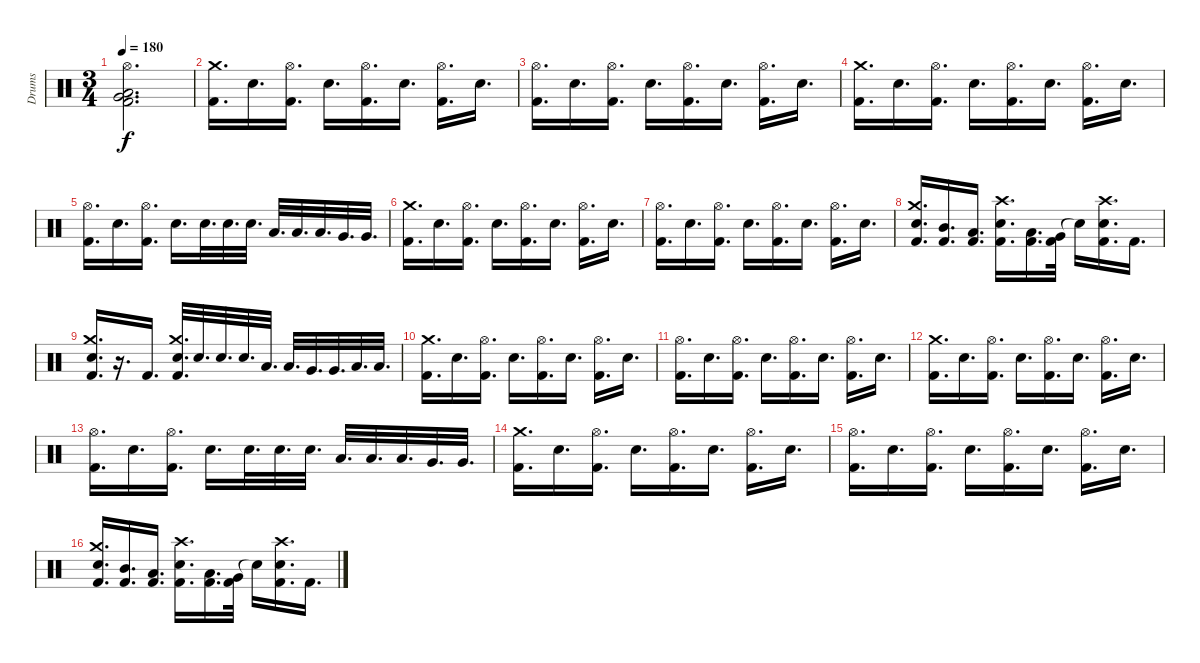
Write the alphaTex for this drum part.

\track ("Drums" "Drums") {instrument percussion}
\staff {score}
\articulation defaults
\ts (3 4)
\tempo 180
\clef neutral
\ks c
("Hi-Hat (open)" "Low Tom (hit)" "Very Low Tom (hit)" "Kick (hit) 2").2{d dy f} |
("Crash medium (hit)" "Kick (hit) 2").16{d} "Electric Snare (hit)".16{d} ("Hi-Hat (open)" "Kick (hit) 2").16{d} "Electric Snare (hit)".16{d} ("Hi-Hat (open)" "Kick (hit) 2").16{d} "Electric Snare (hit)".16{d} ("Hi-Hat (open)" "Kick (hit) 2").16{d} "Electric Snare (hit)".16{d} |
("Hi-Hat (open)" "Kick (hit) 2").16{d} "Electric Snare (hit)".16{d} ("Hi-Hat (open)" "Kick (hit) 2").16{d} "Electric Snare (hit)".16{d} ("Hi-Hat (open)" "Kick (hit) 2").16{d} "Electric Snare (hit)".16{d} ("Hi-Hat (open)" "Kick (hit) 2").16{d} "Electric Snare (hit)".16{d} |
("Crash medium (hit)" "Kick (hit) 2").16{d} "Electric Snare (hit)".16{d} ("Hi-Hat (open)" "Kick (hit) 2").16{d} "Electric Snare (hit)".16{d} ("Hi-Hat (open)" "Kick (hit) 2").16{d} "Electric Snare (hit)".16{d} ("Hi-Hat (open)" "Kick (hit) 2").16{d} "Electric Snare (hit)".16{d} |
("Hi-Hat (open)" "Kick (hit) 2").16{d} "Electric Snare (hit)".16{d} ("Hi-Hat (open)" "Kick (hit) 2").16{d} "Electric Snare (hit)".16{d} "Electric Snare (hit)".32{d} "Electric Snare (hit)".32{d} "Electric Snare (hit)".32{d} "Low Tom (hit)".32{d} "Low Tom (hit)".32{d} "Low Tom (hit)".32{d} "Very Low Tom (hit)".32{d} "Very Low Tom (hit)".32{d} |
("Crash medium (hit)" "Kick (hit) 2").16{d} "Electric Snare (hit)".16{d} ("Hi-Hat (open)" "Kick (hit) 2").16{d} "Electric Snare (hit)".16{d} ("Hi-Hat (open)" "Kick (hit) 2").16{d} "Electric Snare (hit)".16{d} ("Hi-Hat (open)" "Kick (hit) 2").16{d} "Electric Snare (hit)".16{d} |
("Hi-Hat (open)" "Kick (hit) 2").16{d} "Electric Snare (hit)".16{d} ("Hi-Hat (open)" "Kick (hit) 2").16{d} "Electric Snare (hit)".16{d} ("Hi-Hat (open)" "Kick (hit) 2").16{d} "Electric Snare (hit)".16{d} ("Hi-Hat (open)" "Kick (hit) 2").16{d} "Electric Snare (hit)".16{d} |
("Crash medium (hit)" "Electric Snare (hit)" "Kick (hit) 2").16{d} ("Mid Tom (hit)" "Kick (hit) 2").16{d} ("Low Tom (hit)" "Kick (hit) 2").16{d} ("Crash high (hit)" "Electric Snare (hit)" "Kick (hit) 2").16{d} ("Low Tom (hit)" "Kick (hit) 2").16{d} ("Very Low Tom (hit)" "Kick (hit) 2").32 "Snare (hit)"{t}.16 ("Crash high (hit)" "Electric Snare (hit)" "Kick (hit) 2").16{d} "Kick (hit) 2".16{d} |
("Crash medium (hit)" "Electric Snare (hit)" "Kick (hit) 2").16{d} r.16{d} "Kick (hit) 2".16{d} ("Crash medium (hit)" "Electric Snare (hit)" "Kick (hit) 2").32{d} "Electric Snare (hit)".32{d} "Electric Snare (hit)".32{d} "Electric Snare (hit)".32{d} "Low Tom (hit)".32{d} "Low Tom (hit)".32{d} "Very Low Tom (hit)".32{d} "Very Low Tom (hit)".32{d} "Low Floor Tom (hit)".32{d} "Low Floor Tom (hit)".32{d} |
("Crash medium (hit)" "Kick (hit) 2").16{d} "Electric Snare (hit)".16{d} ("Hi-Hat (open)" "Kick (hit) 2").16{d} "Electric Snare (hit)".16{d} ("Hi-Hat (open)" "Kick (hit) 2").16{d} "Electric Snare (hit)".16{d} ("Hi-Hat (open)" "Kick (hit) 2").16{d} "Electric Snare (hit)".16{d} |
("Hi-Hat (open)" "Kick (hit) 2").16{d} "Electric Snare (hit)".16{d} ("Hi-Hat (open)" "Kick (hit) 2").16{d} "Electric Snare (hit)".16{d} ("Hi-Hat (open)" "Kick (hit) 2").16{d} "Electric Snare (hit)".16{d} ("Hi-Hat (open)" "Kick (hit) 2").16{d} "Electric Snare (hit)".16{d} |
("Crash medium (hit)" "Kick (hit) 2").16{d} "Electric Snare (hit)".16{d} ("Hi-Hat (open)" "Kick (hit) 2").16{d} "Electric Snare (hit)".16{d} ("Hi-Hat (open)" "Kick (hit) 2").16{d} "Electric Snare (hit)".16{d} ("Hi-Hat (open)" "Kick (hit) 2").16{d} "Electric Snare (hit)".16{d} |
("Hi-Hat (open)" "Kick (hit) 2").16{d} "Electric Snare (hit)".16{d} ("Hi-Hat (open)" "Kick (hit) 2").16{d} "Electric Snare (hit)".16{d} "Electric Snare (hit)".32{d} "Electric Snare (hit)".32{d} "Electric Snare (hit)".32{d} "Low Tom (hit)".32{d} "Low Tom (hit)".32{d} "Low Tom (hit)".32{d} "Very Low Tom (hit)".32{d} "Very Low Tom (hit)".32{d} |
("Crash medium (hit)" "Kick (hit) 2").16{d} "Electric Snare (hit)".16{d} ("Hi-Hat (open)" "Kick (hit) 2").16{d} "Electric Snare (hit)".16{d} ("Hi-Hat (open)" "Kick (hit) 2").16{d} "Electric Snare (hit)".16{d} ("Hi-Hat (open)" "Kick (hit) 2").16{d} "Electric Snare (hit)".16{d} |
("Hi-Hat (open)" "Kick (hit) 2").16{d} "Electric Snare (hit)".16{d} ("Hi-Hat (open)" "Kick (hit) 2").16{d} "Electric Snare (hit)".16{d} ("Hi-Hat (open)" "Kick (hit) 2").16{d} "Electric Snare (hit)".16{d} ("Hi-Hat (open)" "Kick (hit) 2").16{d} "Electric Snare (hit)".16{d} |
("Crash medium (hit)" "Electric Snare (hit)" "Kick (hit) 2").16{d} ("Mid Tom (hit)" "Kick (hit) 2").16{d} ("Low Tom (hit)" "Kick (hit) 2").16{d} ("Crash high (hit)" "Electric Snare (hit)" "Kick (hit) 2").16{d} ("Low Tom (hit)" "Kick (hit) 2").16{d} ("Very Low Tom (hit)" "Kick (hit) 2").32 "Snare (hit)"{t}.16 ("Crash high (hit)" "Electric Snare (hit)" "Kick (hit) 2").16{d} "Kick (hit) 2".16{d}
